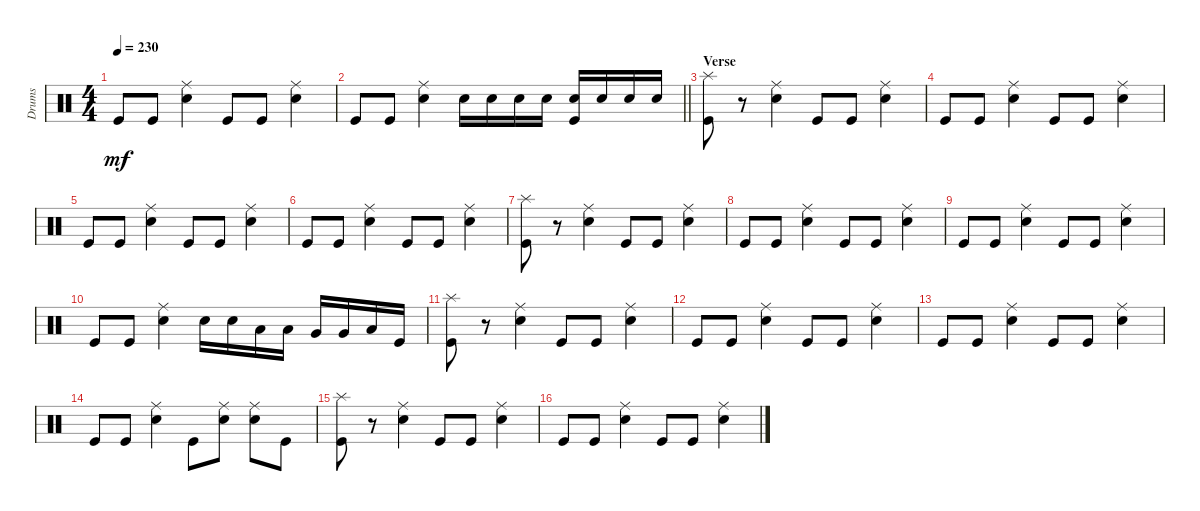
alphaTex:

\track ("Drums" "Drums") {instrument percussion}
\staff {score}
\articulation defaults
\ts (4 4)
\tempo 230
\clef neutral
\ks c "Kick (hit)".8{dy mf} "Kick (hit)".8
("Snare (hit) 2" "Ride (middle)").4 "Kick (hit)".8 "Kick (hit)".8 ("Snare (hit) 2" "Ride (middle)").4 |
\barLineRight lightlight "Kick (hit)".8 "Kick (hit)".8
("Snare (hit) 2" "Ride (middle)").4 "Snare (hit) 2".16 "Snare (hit) 2".16 "Snare (hit) 2".16 "Snare (hit) 2".16 ("Snare (hit) 2" "Kick (hit)").16 "Snare (hit) 2".16 "Snare (hit) 2".16 "Snare (hit) 2".16 |
\section ("" "Verse")
("Kick (hit)" "Splash (hit)").8 r.8 ("Snare (hit) 2" "Ride (middle)").4 "Kick (hit)".8 "Kick (hit)".8 ("Snare (hit) 2" "Ride (middle)").4 |
"Kick (hit)".8 "Kick (hit)".8 ("Snare (hit) 2" "Ride (middle)").4 "Kick (hit)".8 "Kick (hit)".8 ("Snare (hit) 2" "Ride (middle)").4 |
"Kick (hit)".8 "Kick (hit)".8 ("Snare (hit) 2" "Ride (middle)").4 "Kick (hit)".8 "Kick (hit)".8 ("Snare (hit) 2" "Ride (middle)").4 |
"Kick (hit)".8 "Kick (hit)".8 ("Snare (hit) 2" "Ride (middle)").4 "Kick (hit)".8 "Kick (hit)".8 ("Snare (hit) 2" "Ride (middle)").4 |
("Kick (hit)" "Splash (hit)").8 r.8 ("Snare (hit) 2" "Ride (middle)").4 "Kick (hit)".8 "Kick (hit)".8 ("Snare (hit) 2" "Ride (middle)").4 |
"Kick (hit)".8 "Kick (hit)".8 ("Snare (hit) 2" "Ride (middle)").4 "Kick (hit)".8 "Kick (hit)".8 ("Snare (hit) 2" "Ride (middle)").4 |
"Kick (hit)".8 "Kick (hit)".8 ("Snare (hit) 2" "Ride (middle)").4 "Kick (hit)".8 "Kick (hit)".8 ("Snare (hit) 2" "Ride (middle)").4 |
"Kick (hit)".8 "Kick (hit)".8 ("Snare (hit) 2" "Ride (middle)").4 "Snare (hit) 2".16 "Snare (hit) 2".16 "Low Tom (hit)".16 "Low Tom (hit)".16 "Very Low Tom (hit)".16 "Very Low Tom (hit)".16 "Low Floor Tom (hit)".16 "Kick (hit)".16 |
("Kick (hit)" "Splash (hit)").8 r.8 ("Snare (hit) 2" "Ride (middle)").4 "Kick (hit)".8 "Kick (hit)".8 ("Snare (hit) 2" "Ride (middle)").4 |
"Kick (hit)".8 "Kick (hit)".8 ("Snare (hit) 2" "Ride (middle)").4 "Kick (hit)".8 "Kick (hit)".8 ("Snare (hit) 2" "Ride (middle)").4 |
"Kick (hit)".8 "Kick (hit)".8 ("Snare (hit) 2" "Ride (middle)").4 "Kick (hit)".8 "Kick (hit)".8 ("Snare (hit) 2" "Ride (middle)").4 |
"Kick (hit)".8 "Kick (hit)".8 ("Snare (hit) 2" "Ride (middle)").4 "Kick (hit)".8 ("Snare (hit) 2" "Ride (middle)").8 ("Snare (hit) 2" "Ride (middle)").8 "Kick (hit)".8 |
("Kick (hit)" "Splash (hit)").8 r.8 ("Snare (hit) 2" "Ride (middle)").4 "Kick (hit)".8 "Kick (hit)".8 ("Snare (hit) 2" "Ride (middle)").4 |
"Kick (hit)".8 "Kick (hit)".8 ("Snare (hit) 2" "Ride (middle)").4 "Kick (hit)".8 "Kick (hit)".8 ("Snare (hit) 2" "Ride (middle)").4
